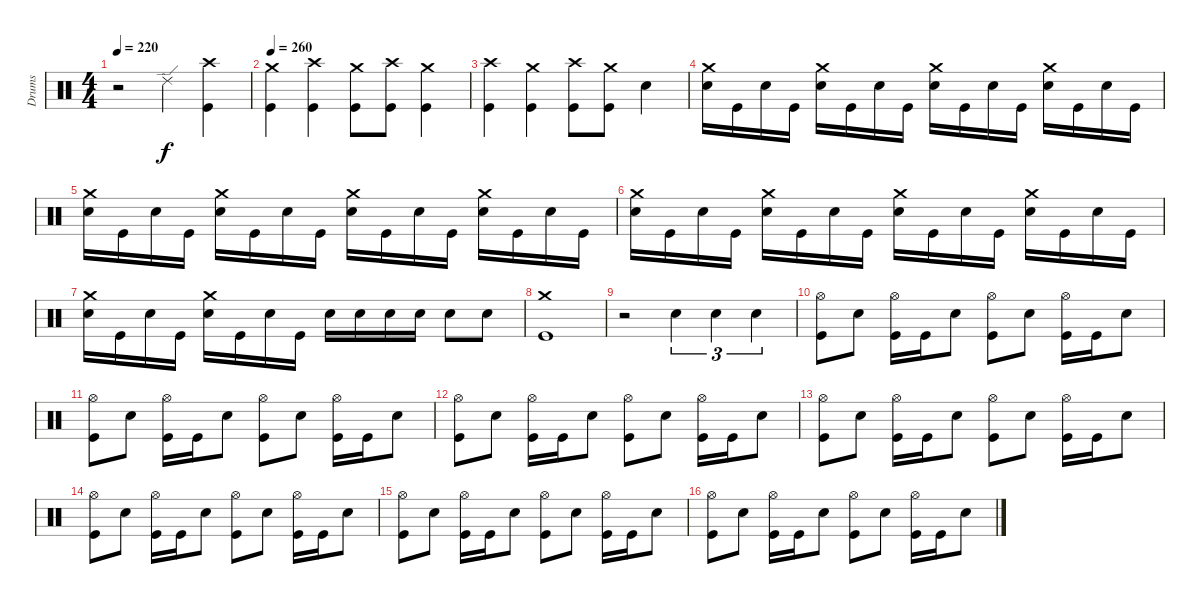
\track ("Drums" "Drums") {instrument percussion}
\staff {score}
\articulation defaults
\ts (4 4)
\tempo 220
\clef neutral
\ks c
r.2{dy f} "Ride (edge) 2".4 ("Crash high (hit)" "Kick (hit)").4 |
\tempo 260
("Crash medium (hit)" "Kick (hit)").4 ("Crash high (hit)" "Kick (hit)").4 ("Crash medium (hit)" "Kick (hit)").8 ("Crash high (hit)" "Kick (hit)").8 ("Crash medium (hit)" "Kick (hit)").4 |
("Crash high (hit)" "Kick (hit)").4 ("Crash medium (hit)" "Kick (hit)").4 ("Crash high (hit)" "Kick (hit)").8 ("Crash medium (hit)" "Kick (hit)").8 "Electric Snare (hit)".4 |
("Crash medium (hit)" "Electric Snare (hit)").16 "Kick (hit)".16 "Electric Snare (hit)".16 "Kick (hit)".16 ("Crash medium (hit)" "Electric Snare (hit)").16 "Kick (hit)".16 "Electric Snare (hit)".16 "Kick (hit)".16 ("Crash medium (hit)" "Electric Snare (hit)").16 "Kick (hit)".16 "Electric Snare (hit)".16 "Kick (hit)".16 ("Crash medium (hit)" "Electric Snare (hit)").16 "Kick (hit)".16 "Electric Snare (hit)".16 "Kick (hit)".16 |
("Crash medium (hit)" "Electric Snare (hit)").16 "Kick (hit)".16 "Electric Snare (hit)".16 "Kick (hit)".16 ("Crash medium (hit)" "Electric Snare (hit)").16 "Kick (hit)".16 "Electric Snare (hit)".16 "Kick (hit)".16 ("Crash medium (hit)" "Electric Snare (hit)").16 "Kick (hit)".16 "Electric Snare (hit)".16 "Kick (hit)".16 ("Crash medium (hit)" "Electric Snare (hit)").16 "Kick (hit)".16 "Electric Snare (hit)".16 "Kick (hit)".16 |
("Crash medium (hit)" "Electric Snare (hit)").16 "Kick (hit)".16 "Electric Snare (hit)".16 "Kick (hit)".16 ("Crash medium (hit)" "Electric Snare (hit)").16 "Kick (hit)".16 "Electric Snare (hit)".16 "Kick (hit)".16 ("Crash medium (hit)" "Electric Snare (hit)").16 "Kick (hit)".16 "Electric Snare (hit)".16 "Kick (hit)".16 ("Crash medium (hit)" "Electric Snare (hit)").16 "Kick (hit)".16 "Electric Snare (hit)".16 "Kick (hit)".16 |
("Crash medium (hit)" "Electric Snare (hit)").16 "Kick (hit)".16 "Electric Snare (hit)".16 "Kick (hit)".16 ("Crash medium (hit)" "Electric Snare (hit)").16 "Kick (hit)".16 "Electric Snare (hit)".16 "Kick (hit)".16 "Electric Snare (hit)".16 "Electric Snare (hit)".16 "Electric Snare (hit)".16 "Electric Snare (hit)".16 "Electric Snare (hit)".8 "Electric Snare (hit)".8 |
("Crash medium (hit)" "Kick (hit)").1 |
r.2 "Electric Snare (hit)".4{tu (3 2)} "Electric Snare (hit)".4{tu (3 2)} "Electric Snare (hit)".4{tu (3 2)} |
("Hi-Hat (open)" "Kick (hit)").8 "Electric Snare (hit)".8 ("Hi-Hat (open)" "Kick (hit)").16 "Kick (hit)".16 "Electric Snare (hit)".8 ("Hi-Hat (open)" "Kick (hit)").8 "Electric Snare (hit)".8 ("Hi-Hat (open)" "Kick (hit)").16 "Kick (hit)".16 "Electric Snare (hit)".8 |
("Hi-Hat (open)" "Kick (hit)").8 "Electric Snare (hit)".8 ("Hi-Hat (open)" "Kick (hit)").16 "Kick (hit)".16 "Electric Snare (hit)".8 ("Hi-Hat (open)" "Kick (hit)").8 "Electric Snare (hit)".8 ("Hi-Hat (open)" "Kick (hit)").16 "Kick (hit)".16 "Electric Snare (hit)".8 |
("Hi-Hat (open)" "Kick (hit)").8 "Electric Snare (hit)".8 ("Hi-Hat (open)" "Kick (hit)").16 "Kick (hit)".16 "Electric Snare (hit)".8 ("Hi-Hat (open)" "Kick (hit)").8 "Electric Snare (hit)".8 ("Hi-Hat (open)" "Kick (hit)").16 "Kick (hit)".16 "Electric Snare (hit)".8 |
("Hi-Hat (open)" "Kick (hit)").8 "Electric Snare (hit)".8 ("Hi-Hat (open)" "Kick (hit)").16 "Kick (hit)".16 "Electric Snare (hit)".8 ("Hi-Hat (open)" "Kick (hit)").8 "Electric Snare (hit)".8 ("Hi-Hat (open)" "Kick (hit)").16 "Kick (hit)".16 "Electric Snare (hit)".8 |
("Hi-Hat (open)" "Kick (hit)").8 "Electric Snare (hit)".8 ("Hi-Hat (open)" "Kick (hit)").16 "Kick (hit)".16 "Electric Snare (hit)".8 ("Hi-Hat (open)" "Kick (hit)").8 "Electric Snare (hit)".8 ("Hi-Hat (open)" "Kick (hit)").16 "Kick (hit)".16 "Electric Snare (hit)".8 |
("Hi-Hat (open)" "Kick (hit)").8 "Electric Snare (hit)".8 ("Hi-Hat (open)" "Kick (hit)").16 "Kick (hit)".16 "Electric Snare (hit)".8 ("Hi-Hat (open)" "Kick (hit)").8 "Electric Snare (hit)".8 ("Hi-Hat (open)" "Kick (hit)").16 "Kick (hit)".16 "Electric Snare (hit)".8 |
("Hi-Hat (open)" "Kick (hit)").8 "Electric Snare (hit)".8 ("Hi-Hat (open)" "Kick (hit)").16 "Kick (hit)".16 "Electric Snare (hit)".8 ("Hi-Hat (open)" "Kick (hit)").8 "Electric Snare (hit)".8 ("Hi-Hat (open)" "Kick (hit)").16 "Kick (hit)".16 "Electric Snare (hit)".8
